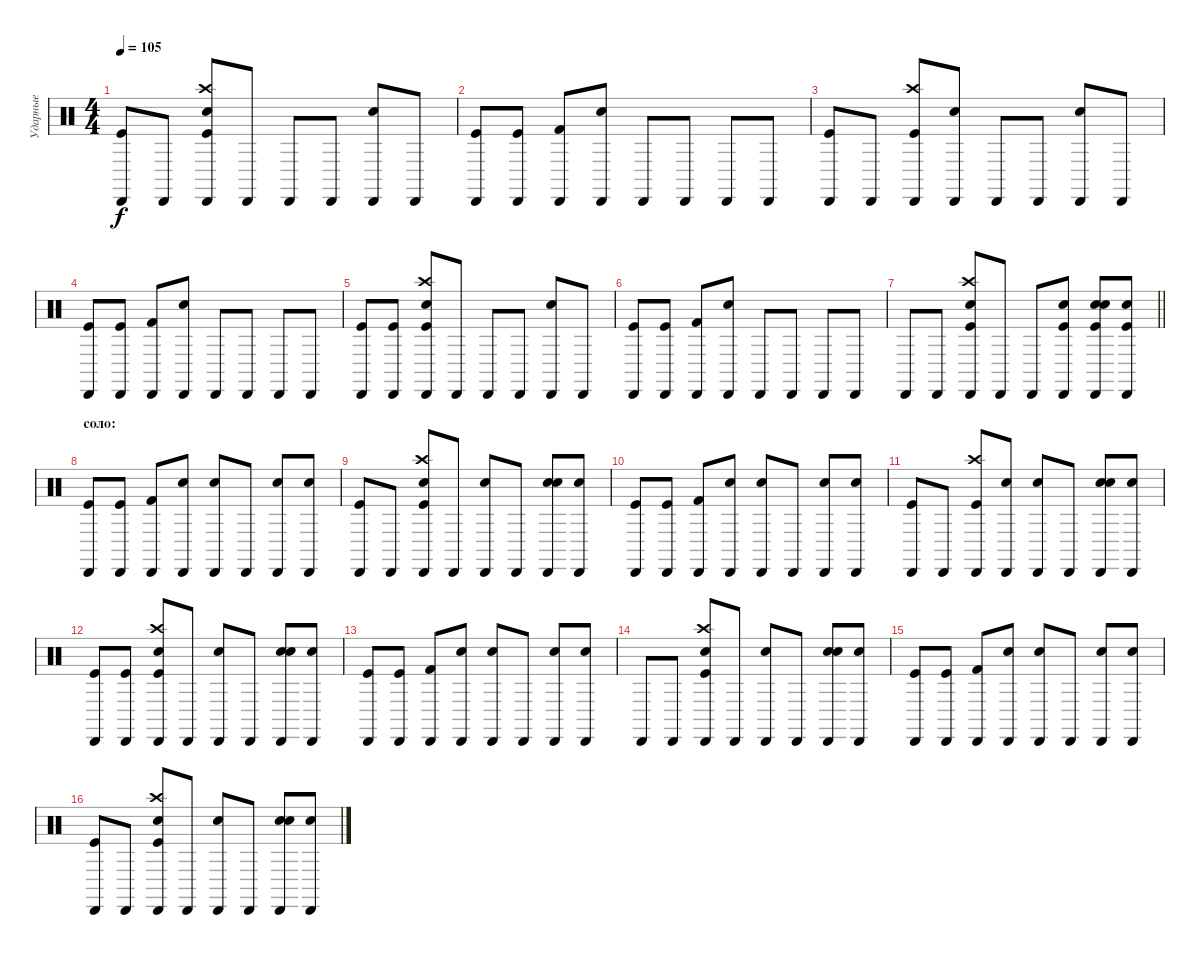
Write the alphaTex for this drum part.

\track ("Ударные" "Ударные") {instrument percussion}
\staff {score}
\articulation defaults
\ts (4 4)
\tempo 105
\clef neutral
\ks c
("Cabasa (hit)" "Kick (hit)").8{dy f} "Cabasa (hit)".8 ("Cabasa (hit)" "Crash high (hit)" "Electric Snare (hit)" "Kick (hit)").8 "Cabasa (hit)".8 "Cabasa (hit)".8 "Cabasa (hit)".8 ("Cabasa (hit)" "Snare (hit) 2").8 "Cabasa (hit)".8 |
("Cabasa (hit)" "Kick (hit)").8 ("Cabasa (hit)" "Kick (hit)").8 ("Cabasa (hit)" "Kick (hit) 2").8 ("Cabasa (hit)" "Electric Snare (hit)").8 "Cabasa (hit)".8 "Cabasa (hit)".8 "Cabasa (hit)".8 "Cabasa (hit)".8 |
("Cabasa (hit)" "Kick (hit)").8 "Cabasa (hit)".8 ("Cabasa (hit)" "Crash high (hit)" "Kick (hit)").8 ("Cabasa (hit)" "Electric Snare (hit)").8 "Cabasa (hit)".8 "Cabasa (hit)".8 ("Cabasa (hit)" "Snare (hit) 2").8 "Cabasa (hit)".8 |
("Cabasa (hit)" "Kick (hit)").8 ("Cabasa (hit)" "Kick (hit)").8 ("Cabasa (hit)" "Kick (hit) 2").8 ("Cabasa (hit)" "Electric Snare (hit)").8 "Cabasa (hit)".8 "Cabasa (hit)".8 "Cabasa (hit)".8 "Cabasa (hit)".8 |
("Cabasa (hit)" "Kick (hit)").8 ("Cabasa (hit)" "Kick (hit)").8 ("Cabasa (hit)" "Crash high (hit)" "Electric Snare (hit)" "Kick (hit)").8 "Cabasa (hit)".8 "Cabasa (hit)".8 "Cabasa (hit)".8 ("Cabasa (hit)" "Snare (hit) 2").8 "Cabasa (hit)".8 |
("Cabasa (hit)" "Kick (hit)").8 ("Cabasa (hit)" "Kick (hit)").8 ("Cabasa (hit)" "Kick (hit) 2").8 ("Cabasa (hit)" "Electric Snare (hit)").8 "Cabasa (hit)".8 "Cabasa (hit)".8 "Cabasa (hit)".8 "Cabasa (hit)".8 |
\barLineRight lightlight "Cabasa (hit)".8 "Cabasa (hit)".8
("Cabasa (hit)" "Crash high (hit)" "Electric Snare (hit)" "Kick (hit)").8 "Cabasa (hit)".8 "Cabasa (hit)".8 ("Cabasa (hit)" "Kick (hit)" "Snare (hit) 2").8 ("Cabasa (hit)" "Kick (hit)" "Snare (hit) 2" "Snare (hit) 2").8 ("Cabasa (hit)" "Kick (hit)" "Snare (hit) 2").8 |
\section ("" "соло:")
("Cabasa (hit)" "Kick (hit)").8 ("Cabasa (hit)" "Kick (hit)").8 ("Cabasa (hit)" "Kick (hit) 2").8 ("Cabasa (hit)" "Electric Snare (hit)").8 ("Cabasa (hit)" "Snare (hit) 2").8 "Cabasa (hit)".8 ("Cabasa (hit)" "Snare (hit) 2").8 ("Cabasa (hit)" "Snare (hit) 2").8 |
("Cabasa (hit)" "Kick (hit)").8 "Cabasa (hit)".8 ("Cabasa (hit)" "Crash high (hit)" "Electric Snare (hit)" "Kick (hit)").8 "Cabasa (hit)".8 ("Cabasa (hit)" "Snare (hit) 2").8 "Cabasa (hit)".8 ("Cabasa (hit)" "Snare (hit) 2" "Snare (hit) 2").8 ("Cabasa (hit)" "Snare (hit) 2").8 |
("Cabasa (hit)" "Kick (hit)").8 ("Cabasa (hit)" "Kick (hit)").8 ("Cabasa (hit)" "Kick (hit) 2").8 ("Cabasa (hit)" "Electric Snare (hit)").8 ("Cabasa (hit)" "Snare (hit) 2").8 "Cabasa (hit)".8 ("Cabasa (hit)" "Snare (hit) 2").8 ("Cabasa (hit)" "Snare (hit) 2").8 |
("Cabasa (hit)" "Kick (hit)").8 "Cabasa (hit)".8 ("Cabasa (hit)" "Crash high (hit)" "Kick (hit)").8 ("Cabasa (hit)" "Electric Snare (hit)").8 ("Cabasa (hit)" "Snare (hit) 2").8 "Cabasa (hit)".8 ("Cabasa (hit)" "Snare (hit) 2" "Snare (hit) 2").8 ("Cabasa (hit)" "Snare (hit) 2").8 |
("Cabasa (hit)" "Kick (hit)").8 ("Cabasa (hit)" "Kick (hit)").8 ("Cabasa (hit)" "Crash high (hit)" "Electric Snare (hit)" "Kick (hit)").8 "Cabasa (hit)".8 ("Cabasa (hit)" "Snare (hit) 2").8 "Cabasa (hit)".8 ("Cabasa (hit)" "Snare (hit) 2" "Snare (hit) 2").8 ("Cabasa (hit)" "Snare (hit) 2").8 |
("Cabasa (hit)" "Kick (hit)").8 ("Cabasa (hit)" "Kick (hit)").8 ("Cabasa (hit)" "Kick (hit) 2").8 ("Cabasa (hit)" "Electric Snare (hit)").8 ("Cabasa (hit)" "Snare (hit) 2").8 "Cabasa (hit)".8 ("Cabasa (hit)" "Snare (hit) 2").8 ("Cabasa (hit)" "Snare (hit) 2").8 |
"Cabasa (hit)".8 "Cabasa (hit)".8 ("Cabasa (hit)" "Crash high (hit)" "Electric Snare (hit)" "Kick (hit)").8 "Cabasa (hit)".8 ("Cabasa (hit)" "Snare (hit) 2").8 "Cabasa (hit)".8 ("Cabasa (hit)" "Snare (hit) 2" "Snare (hit) 2").8 ("Cabasa (hit)" "Snare (hit) 2").8 |
("Cabasa (hit)" "Kick (hit)").8 ("Cabasa (hit)" "Kick (hit)").8 ("Cabasa (hit)" "Kick (hit) 2").8 ("Cabasa (hit)" "Electric Snare (hit)").8 ("Cabasa (hit)" "Snare (hit) 2").8 "Cabasa (hit)".8 ("Cabasa (hit)" "Snare (hit) 2").8 ("Cabasa (hit)" "Snare (hit) 2").8 |
("Cabasa (hit)" "Kick (hit)").8 "Cabasa (hit)".8 ("Cabasa (hit)" "Crash high (hit)" "Electric Snare (hit)" "Kick (hit)").8 "Cabasa (hit)".8 ("Cabasa (hit)" "Snare (hit) 2").8 "Cabasa (hit)".8 ("Cabasa (hit)" "Snare (hit) 2" "Snare (hit) 2").8 ("Cabasa (hit)" "Snare (hit) 2").8
